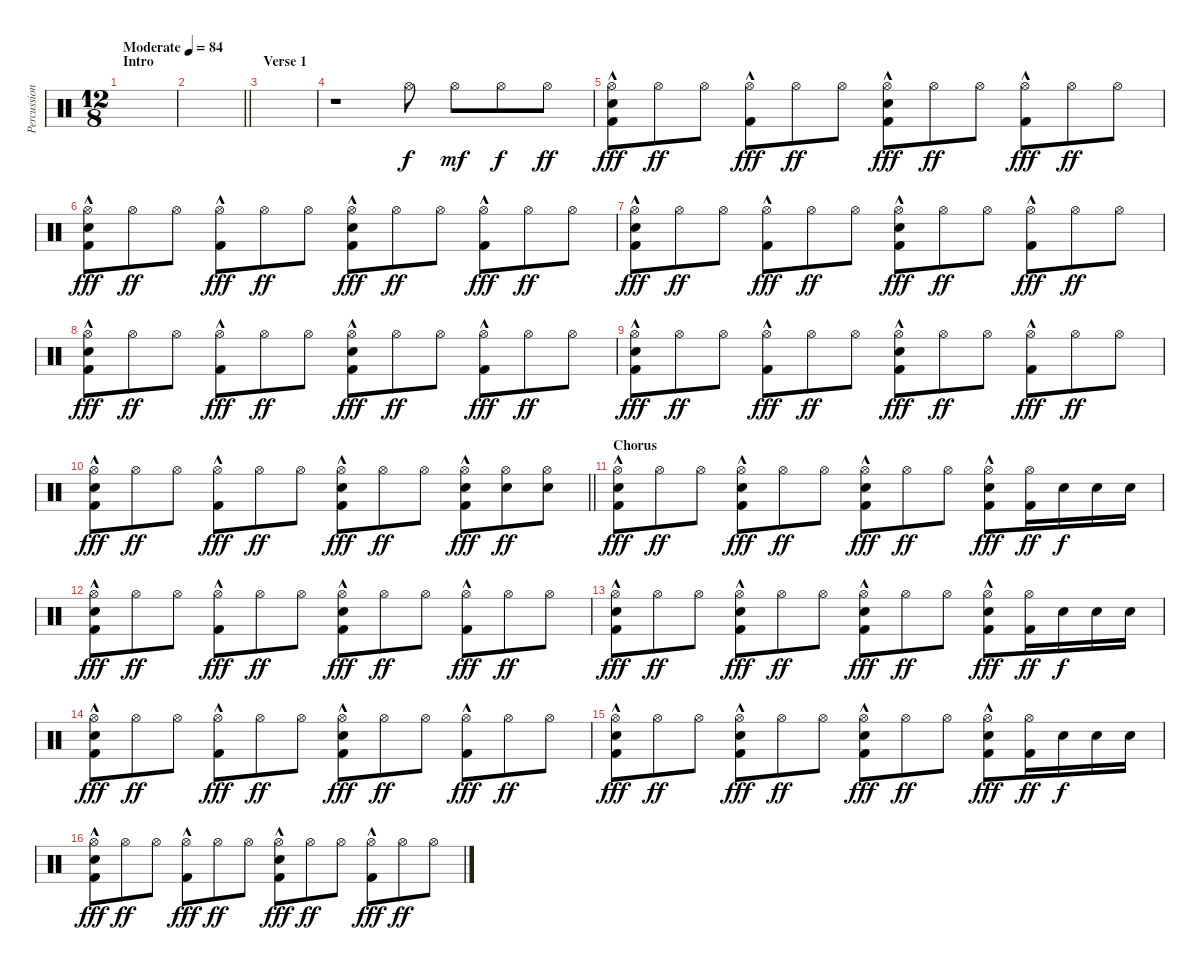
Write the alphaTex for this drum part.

\track ("Percussion" "Percussion") {instrument percussion}
\staff {score}
\articulation defaults
\ts (12 8)
\section ("" "Intro")
\tempo (84 "Moderate")
\clef neutral
\ks c
|
\barLineRight lightlight
|
\section ("" "Verse 1")
|
r.1 "Hi-Hat (open)".8 "Hi-Hat (open)".8{dy mf} "Hi-Hat (open)".8{dy f} "Hi-Hat (open)".8{dy ff} |
("Electric Snare (hit)" "Hi-Hat (open)" "Kick (hit) 2"{hac}).8{dy fff} "Hi-Hat (open)".8{dy ff} "Hi-Hat (open)".8 ("Hi-Hat (open)" "Kick (hit) 2"{hac}).8{dy fff} "Hi-Hat (open)".8{dy ff} "Hi-Hat (open)".8 ("Electric Snare (hit)" "Hi-Hat (open)" "Kick (hit) 2"{hac}).8{dy fff} "Hi-Hat (open)".8{dy ff} "Hi-Hat (open)".8 ("Hi-Hat (open)" "Kick (hit) 2"{hac}).8{dy fff} "Hi-Hat (open)".8{dy ff} "Hi-Hat (open)".8 |
("Electric Snare (hit)" "Hi-Hat (open)" "Kick (hit) 2"{hac}).8{dy fff} "Hi-Hat (open)".8{dy ff} "Hi-Hat (open)".8 ("Hi-Hat (open)" "Kick (hit) 2"{hac}).8{dy fff} "Hi-Hat (open)".8{dy ff} "Hi-Hat (open)".8 ("Electric Snare (hit)" "Hi-Hat (open)" "Kick (hit) 2"{hac}).8{dy fff} "Hi-Hat (open)".8{dy ff} "Hi-Hat (open)".8 ("Hi-Hat (open)" "Kick (hit) 2"{hac}).8{dy fff} "Hi-Hat (open)".8{dy ff} "Hi-Hat (open)".8 |
("Electric Snare (hit)" "Hi-Hat (open)" "Kick (hit) 2"{hac}).8{dy fff} "Hi-Hat (open)".8{dy ff} "Hi-Hat (open)".8 ("Hi-Hat (open)" "Kick (hit) 2"{hac}).8{dy fff} "Hi-Hat (open)".8{dy ff} "Hi-Hat (open)".8 ("Electric Snare (hit)" "Hi-Hat (open)" "Kick (hit) 2"{hac}).8{dy fff} "Hi-Hat (open)".8{dy ff} "Hi-Hat (open)".8 ("Hi-Hat (open)" "Kick (hit) 2"{hac}).8{dy fff} "Hi-Hat (open)".8{dy ff} "Hi-Hat (open)".8 |
("Electric Snare (hit)" "Hi-Hat (open)" "Kick (hit) 2"{hac}).8{dy fff} "Hi-Hat (open)".8{dy ff} "Hi-Hat (open)".8 ("Hi-Hat (open)" "Kick (hit) 2"{hac}).8{dy fff} "Hi-Hat (open)".8{dy ff} "Hi-Hat (open)".8 ("Electric Snare (hit)" "Hi-Hat (open)" "Kick (hit) 2"{hac}).8{dy fff} "Hi-Hat (open)".8{dy ff} "Hi-Hat (open)".8 ("Hi-Hat (open)" "Kick (hit) 2"{hac}).8{dy fff} "Hi-Hat (open)".8{dy ff} "Hi-Hat (open)".8 |
("Electric Snare (hit)" "Hi-Hat (open)" "Kick (hit) 2"{hac}).8{dy fff} "Hi-Hat (open)".8{dy ff} "Hi-Hat (open)".8 ("Hi-Hat (open)" "Kick (hit) 2"{hac}).8{dy fff} "Hi-Hat (open)".8{dy ff} "Hi-Hat (open)".8 ("Electric Snare (hit)" "Hi-Hat (open)" "Kick (hit) 2"{hac}).8{dy fff} "Hi-Hat (open)".8{dy ff} "Hi-Hat (open)".8 ("Hi-Hat (open)" "Kick (hit) 2"{hac}).8{dy fff} "Hi-Hat (open)".8{dy ff} "Hi-Hat (open)".8 |
\barLineRight lightlight
("Electric Snare (hit)" "Hi-Hat (open)" "Kick (hit) 2"{hac}).8{dy fff} "Hi-Hat (open)".8{dy ff} "Hi-Hat (open)".8 ("Hi-Hat (open)" "Kick (hit) 2"{hac}).8{dy fff} "Hi-Hat (open)".8{dy ff} "Hi-Hat (open)".8 ("Electric Snare (hit)" "Hi-Hat (open)" "Kick (hit) 2"{hac}).8{dy fff} "Hi-Hat (open)".8{dy ff} "Hi-Hat (open)".8 ("Electric Snare (hit)" "Hi-Hat (open)" "Kick (hit) 2"{hac}).8{dy fff} ("Electric Snare (hit)" "Hi-Hat (open)").8{dy ff} ("Electric Snare (hit)" "Hi-Hat (open)").8 |
\section ("" "Chorus")
("Electric Snare (hit)" "Hi-Hat (open)" "Kick (hit) 2"{hac}).8{dy fff} "Hi-Hat (open)".8{dy ff} "Hi-Hat (open)".8 ("Electric Snare (hit)" "Hi-Hat (open)" "Kick (hit) 2"{hac}).8{dy fff} "Hi-Hat (open)".8{dy ff} "Hi-Hat (open)".8 ("Electric Snare (hit)" "Hi-Hat (open)" "Kick (hit) 2"{hac}).8{dy fff} "Hi-Hat (open)".8{dy ff} "Hi-Hat (open)".8 ("Electric Snare (hit)" "Hi-Hat (open)" "Kick (hit) 2"{hac}).8{dy fff} ("Hi-Hat (open)" "Kick (hit) 2").16{dy ff} "Electric Snare (hit)".16{dy f} "Electric Snare (hit)".16 "Electric Snare (hit)".16 |
("Electric Snare (hit)" "Hi-Hat (open)" "Kick (hit) 2"{hac}).8{dy fff} "Hi-Hat (open)".8{dy ff} "Hi-Hat (open)".8 ("Hi-Hat (open)" "Kick (hit) 2"{hac}).8{dy fff} "Hi-Hat (open)".8{dy ff} "Hi-Hat (open)".8 ("Electric Snare (hit)" "Hi-Hat (open)" "Kick (hit) 2"{hac}).8{dy fff} "Hi-Hat (open)".8{dy ff} "Hi-Hat (open)".8 ("Hi-Hat (open)" "Kick (hit) 2"{hac}).8{dy fff} "Hi-Hat (open)".8{dy ff} "Hi-Hat (open)".8 |
("Electric Snare (hit)" "Hi-Hat (open)" "Kick (hit) 2"{hac}).8{dy fff} "Hi-Hat (open)".8{dy ff} "Hi-Hat (open)".8 ("Electric Snare (hit)" "Hi-Hat (open)" "Kick (hit) 2"{hac}).8{dy fff} "Hi-Hat (open)".8{dy ff} "Hi-Hat (open)".8 ("Electric Snare (hit)" "Hi-Hat (open)" "Kick (hit) 2"{hac}).8{dy fff} "Hi-Hat (open)".8{dy ff} "Hi-Hat (open)".8 ("Electric Snare (hit)" "Hi-Hat (open)" "Kick (hit) 2"{hac}).8{dy fff} ("Hi-Hat (open)" "Kick (hit) 2").16{dy ff} "Electric Snare (hit)".16{dy f} "Electric Snare (hit)".16 "Electric Snare (hit)".16 |
("Electric Snare (hit)" "Hi-Hat (open)" "Kick (hit) 2"{hac}).8{dy fff} "Hi-Hat (open)".8{dy ff} "Hi-Hat (open)".8 ("Hi-Hat (open)" "Kick (hit) 2"{hac}).8{dy fff} "Hi-Hat (open)".8{dy ff} "Hi-Hat (open)".8 ("Electric Snare (hit)" "Hi-Hat (open)" "Kick (hit) 2"{hac}).8{dy fff} "Hi-Hat (open)".8{dy ff} "Hi-Hat (open)".8 ("Hi-Hat (open)" "Kick (hit) 2"{hac}).8{dy fff} "Hi-Hat (open)".8{dy ff} "Hi-Hat (open)".8 |
("Electric Snare (hit)" "Hi-Hat (open)" "Kick (hit) 2"{hac}).8{dy fff} "Hi-Hat (open)".8{dy ff} "Hi-Hat (open)".8 ("Electric Snare (hit)" "Hi-Hat (open)" "Kick (hit) 2"{hac}).8{dy fff} "Hi-Hat (open)".8{dy ff} "Hi-Hat (open)".8 ("Electric Snare (hit)" "Hi-Hat (open)" "Kick (hit) 2"{hac}).8{dy fff} "Hi-Hat (open)".8{dy ff} "Hi-Hat (open)".8 ("Electric Snare (hit)" "Hi-Hat (open)" "Kick (hit) 2"{hac}).8{dy fff} ("Hi-Hat (open)" "Kick (hit) 2").16{dy ff} "Electric Snare (hit)".16{dy f} "Electric Snare (hit)".16 "Electric Snare (hit)".16 |
("Electric Snare (hit)" "Hi-Hat (open)" "Kick (hit) 2"{hac}).8{dy fff} "Hi-Hat (open)".8{dy ff} "Hi-Hat (open)".8 ("Hi-Hat (open)" "Kick (hit) 2"{hac}).8{dy fff} "Hi-Hat (open)".8{dy ff} "Hi-Hat (open)".8 ("Electric Snare (hit)" "Hi-Hat (open)" "Kick (hit) 2"{hac}).8{dy fff} "Hi-Hat (open)".8{dy ff} "Hi-Hat (open)".8 ("Hi-Hat (open)" "Kick (hit) 2"{hac}).8{dy fff} "Hi-Hat (open)".8{dy ff} "Hi-Hat (open)".8
